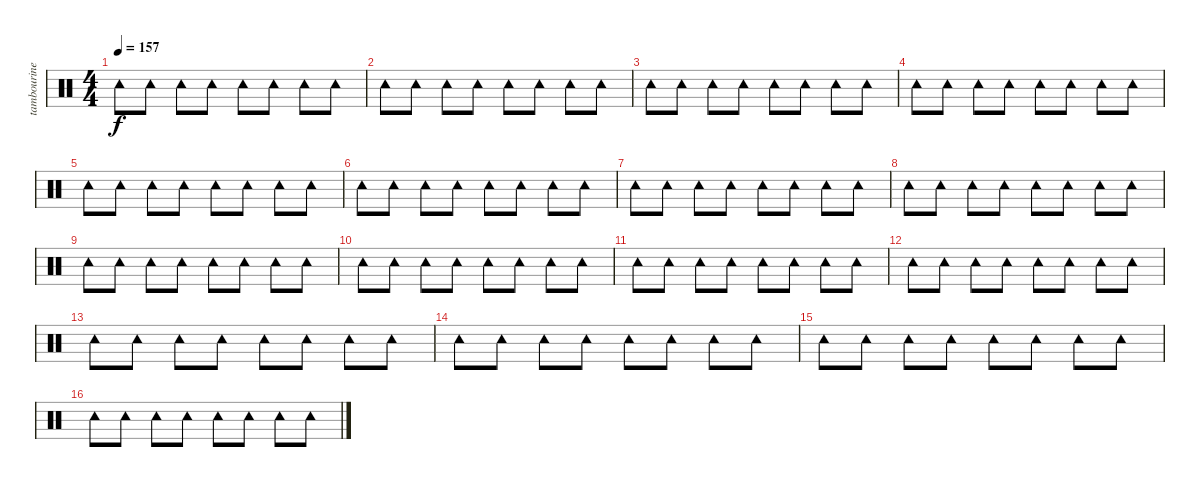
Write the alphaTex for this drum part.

\track ("tambourine" "tambourine") {instrument percussion}
\staff {score}
\articulation defaults
\ts (4 4)
\tempo 157
\clef neutral
\ks c "Tambourine (hit)".8{dy f} "Tambourine (hit)".8 "Tambourine (hit)".8 "Tambourine (hit)".8 "Tambourine (hit)".8 "Tambourine (hit)".8 "Tambourine (hit)".8 "Tambourine (hit)".8
|
"Tambourine (hit)".8 "Tambourine (hit)".8 "Tambourine (hit)".8 "Tambourine (hit)".8 "Tambourine (hit)".8 "Tambourine (hit)".8 "Tambourine (hit)".8 "Tambourine (hit)".8 |
"Tambourine (hit)".8 "Tambourine (hit)".8 "Tambourine (hit)".8 "Tambourine (hit)".8 "Tambourine (hit)".8 "Tambourine (hit)".8 "Tambourine (hit)".8 "Tambourine (hit)".8 |
"Tambourine (hit)".8 "Tambourine (hit)".8 "Tambourine (hit)".8 "Tambourine (hit)".8 "Tambourine (hit)".8 "Tambourine (hit)".8 "Tambourine (hit)".8 "Tambourine (hit)".8 |
"Tambourine (hit)".8 "Tambourine (hit)".8 "Tambourine (hit)".8 "Tambourine (hit)".8 "Tambourine (hit)".8 "Tambourine (hit)".8 "Tambourine (hit)".8 "Tambourine (hit)".8 |
"Tambourine (hit)".8 "Tambourine (hit)".8 "Tambourine (hit)".8 "Tambourine (hit)".8 "Tambourine (hit)".8 "Tambourine (hit)".8 "Tambourine (hit)".8 "Tambourine (hit)".8 |
"Tambourine (hit)".8 "Tambourine (hit)".8 "Tambourine (hit)".8 "Tambourine (hit)".8 "Tambourine (hit)".8 "Tambourine (hit)".8 "Tambourine (hit)".8 "Tambourine (hit)".8 |
"Tambourine (hit)".8 "Tambourine (hit)".8 "Tambourine (hit)".8 "Tambourine (hit)".8 "Tambourine (hit)".8 "Tambourine (hit)".8 "Tambourine (hit)".8 "Tambourine (hit)".8 |
"Tambourine (hit)".8 "Tambourine (hit)".8 "Tambourine (hit)".8 "Tambourine (hit)".8 "Tambourine (hit)".8 "Tambourine (hit)".8 "Tambourine (hit)".8 "Tambourine (hit)".8 |
"Tambourine (hit)".8 "Tambourine (hit)".8 "Tambourine (hit)".8 "Tambourine (hit)".8 "Tambourine (hit)".8 "Tambourine (hit)".8 "Tambourine (hit)".8 "Tambourine (hit)".8 |
"Tambourine (hit)".8 "Tambourine (hit)".8 "Tambourine (hit)".8 "Tambourine (hit)".8 "Tambourine (hit)".8 "Tambourine (hit)".8 "Tambourine (hit)".8 "Tambourine (hit)".8 |
"Tambourine (hit)".8 "Tambourine (hit)".8 "Tambourine (hit)".8 "Tambourine (hit)".8 "Tambourine (hit)".8 "Tambourine (hit)".8 "Tambourine (hit)".8 "Tambourine (hit)".8 |
"Tambourine (hit)".8 "Tambourine (hit)".8 "Tambourine (hit)".8 "Tambourine (hit)".8 "Tambourine (hit)".8 "Tambourine (hit)".8 "Tambourine (hit)".8 "Tambourine (hit)".8 |
"Tambourine (hit)".8 "Tambourine (hit)".8 "Tambourine (hit)".8 "Tambourine (hit)".8 "Tambourine (hit)".8 "Tambourine (hit)".8 "Tambourine (hit)".8 "Tambourine (hit)".8 |
"Tambourine (hit)".8 "Tambourine (hit)".8 "Tambourine (hit)".8 "Tambourine (hit)".8 "Tambourine (hit)".8 "Tambourine (hit)".8 "Tambourine (hit)".8 "Tambourine (hit)".8 |
"Tambourine (hit)".8 "Tambourine (hit)".8 "Tambourine (hit)".8 "Tambourine (hit)".8 "Tambourine (hit)".8 "Tambourine (hit)".8 "Tambourine (hit)".8 "Tambourine (hit)".8
